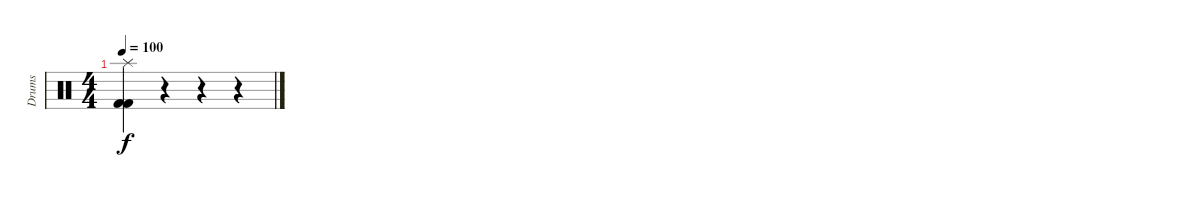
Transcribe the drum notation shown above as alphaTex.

\track ("Drums" "Drums") {instrument percussion}
\staff {score}
\articulation defaults
\ts (4 4)
\tempo 100
\clef neutral
\ks c
("Splash (hit)" "Kick (hit) 2" "Kick (hit) 2").4{dy f} r.4 r.4 r.4
